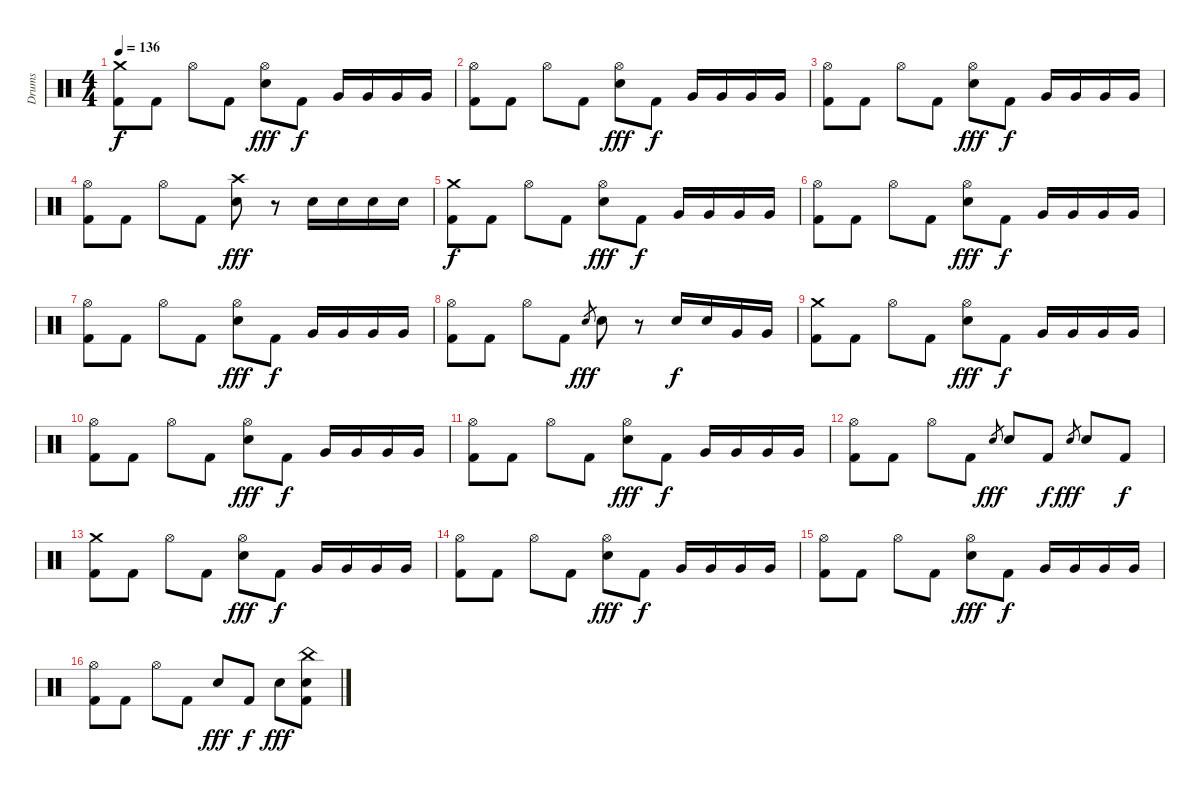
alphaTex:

\track ("Drums" "Drums") {instrument percussion}
\staff {score}
\articulation defaults
\ts (4 4)
\tempo 136
\clef neutral
\ks c
("Crash medium (hit)" "Kick (hit) 2").8{dy f} "Kick (hit) 2".8 "Hi-Hat (open)".8 "Kick (hit) 2".8 ("Hi-Hat (open)" "Electric Snare (hit)").8{dy fff} "Kick (hit) 2".8{dy f} "Very Low Tom (hit)".16 "Very Low Tom (hit)".16 "Very Low Tom (hit)".16 "Very Low Tom (hit)".16 |
("Hi-Hat (open)" "Kick (hit) 2").8 "Kick (hit) 2".8 "Hi-Hat (open)".8 "Kick (hit) 2".8 ("Hi-Hat (open)" "Electric Snare (hit)").8{dy fff} "Kick (hit) 2".8{dy f} "Very Low Tom (hit)".16 "Very Low Tom (hit)".16 "Very Low Tom (hit)".16 "Very Low Tom (hit)".16 |
("Hi-Hat (open)" "Kick (hit) 2").8 "Kick (hit) 2".8 "Hi-Hat (open)".8 "Kick (hit) 2".8 ("Hi-Hat (open)" "Electric Snare (hit)").8{dy fff} "Kick (hit) 2".8{dy f} "Very Low Tom (hit)".16 "Very Low Tom (hit)".16 "Very Low Tom (hit)".16 "Very Low Tom (hit)".16 |
("Hi-Hat (open)" "Kick (hit) 2").8 "Kick (hit) 2".8 "Hi-Hat (open)".8 "Kick (hit) 2".8 ("Crash high (hit)" "Electric Snare (hit)").8{dy fff} r.8 "Electric Snare (hit)".16 "Electric Snare (hit)".16 "Electric Snare (hit)".16 "Electric Snare (hit)".16 |
("Crash medium (hit)" "Kick (hit) 2").8{dy f} "Kick (hit) 2".8 "Hi-Hat (open)".8 "Kick (hit) 2".8 ("Hi-Hat (open)" "Electric Snare (hit)").8{dy fff} "Kick (hit) 2".8{dy f} "Very Low Tom (hit)".16 "Very Low Tom (hit)".16 "Very Low Tom (hit)".16 "Very Low Tom (hit)".16 |
("Hi-Hat (open)" "Kick (hit) 2").8 "Kick (hit) 2".8 "Hi-Hat (open)".8 "Kick (hit) 2".8 ("Hi-Hat (open)" "Electric Snare (hit)").8{dy fff} "Kick (hit) 2".8{dy f} "Very Low Tom (hit)".16 "Very Low Tom (hit)".16 "Very Low Tom (hit)".16 "Very Low Tom (hit)".16 |
("Hi-Hat (open)" "Kick (hit) 2").8 "Kick (hit) 2".8 "Hi-Hat (open)".8 "Kick (hit) 2".8 ("Hi-Hat (open)" "Electric Snare (hit)").8{dy fff} "Kick (hit) 2".8{dy f} "Very Low Tom (hit)".16 "Very Low Tom (hit)".16 "Very Low Tom (hit)".16 "Very Low Tom (hit)".16 |
("Hi-Hat (open)" "Kick (hit) 2").8 "Kick (hit) 2".8 "Hi-Hat (open)".8 "Kick (hit) 2".8 "Electric Snare (hit)".8{gr dy fff} "Electric Snare (hit)".8 r.8 "Electric Snare (hit)".16{dy f} "Electric Snare (hit)".16 "Very Low Tom (hit)".16 "Very Low Tom (hit)".16 |
("Crash medium (hit)" "Kick (hit) 2").8 "Kick (hit) 2".8 "Hi-Hat (open)".8 "Kick (hit) 2".8 ("Hi-Hat (open)" "Electric Snare (hit)").8{dy fff} "Kick (hit) 2".8{dy f} "Very Low Tom (hit)".16 "Very Low Tom (hit)".16 "Very Low Tom (hit)".16 "Very Low Tom (hit)".16 |
("Hi-Hat (open)" "Kick (hit) 2").8 "Kick (hit) 2".8 "Hi-Hat (open)".8 "Kick (hit) 2".8 ("Hi-Hat (open)" "Electric Snare (hit)").8{dy fff} "Kick (hit) 2".8{dy f} "Very Low Tom (hit)".16 "Very Low Tom (hit)".16 "Very Low Tom (hit)".16 "Very Low Tom (hit)".16 |
("Hi-Hat (open)" "Kick (hit) 2").8 "Kick (hit) 2".8 "Hi-Hat (open)".8 "Kick (hit) 2".8 ("Hi-Hat (open)" "Electric Snare (hit)").8{dy fff} "Kick (hit) 2".8{dy f} "Very Low Tom (hit)".16 "Very Low Tom (hit)".16 "Very Low Tom (hit)".16 "Very Low Tom (hit)".16 |
("Hi-Hat (open)" "Kick (hit) 2").8 "Kick (hit) 2".8 "Hi-Hat (open)".8 "Kick (hit) 2".8 "Electric Snare (hit)".8{gr dy fff} "Electric Snare (hit)".8 "Kick (hit) 2".8{dy f} "Electric Snare (hit)".8{gr dy fff} "Electric Snare (hit)".8 "Kick (hit) 2".8{dy f} |
("Crash medium (hit)" "Kick (hit) 2").8 "Kick (hit) 2".8 "Hi-Hat (open)".8 "Kick (hit) 2".8 ("Hi-Hat (open)" "Electric Snare (hit)").8{dy fff} "Kick (hit) 2".8{dy f} "Very Low Tom (hit)".16 "Very Low Tom (hit)".16 "Very Low Tom (hit)".16 "Very Low Tom (hit)".16 |
("Hi-Hat (open)" "Kick (hit) 2").8 "Kick (hit) 2".8 "Hi-Hat (open)".8 "Kick (hit) 2".8 ("Hi-Hat (open)" "Electric Snare (hit)").8{dy fff} "Kick (hit) 2".8{dy f} "Very Low Tom (hit)".16 "Very Low Tom (hit)".16 "Very Low Tom (hit)".16 "Very Low Tom (hit)".16 |
("Hi-Hat (open)" "Kick (hit) 2").8 "Kick (hit) 2".8 "Hi-Hat (open)".8 "Kick (hit) 2".8 ("Hi-Hat (open)" "Electric Snare (hit)").8{dy fff} "Kick (hit) 2".8{dy f} "Very Low Tom (hit)".16 "Very Low Tom (hit)".16 "Very Low Tom (hit)".16 "Very Low Tom (hit)".16 |
("Hi-Hat (open)" "Kick (hit) 2").8 "Kick (hit) 2".8 "Hi-Hat (open)".8 "Kick (hit) 2".8 "Electric Snare (hit)".8{dy fff} "Kick (hit) 2".8{dy f} "Electric Snare (hit)".8{dy fff} ("China (hit)" "Electric Snare (hit)" "Kick (hit) 2").8
